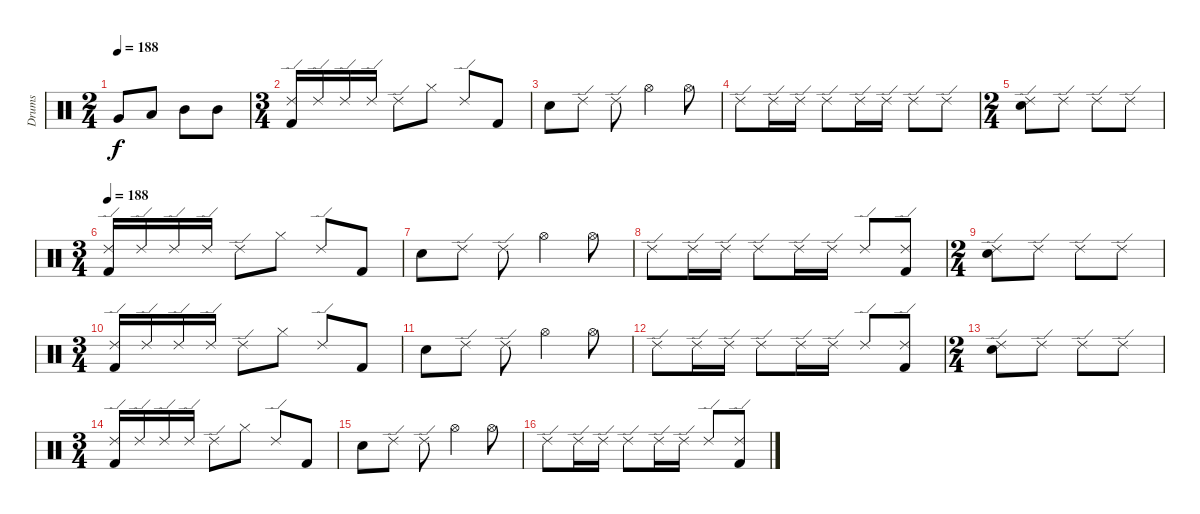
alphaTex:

\track ("Drums" "Drums") {instrument percussion}
\staff {score}
\articulation defaults
\ts (2 4)
\tempo 188
\clef neutral
\ks c "Very Low Tom (hit)".8{dy f} "Low Tom (hit)".8 "Mid Tom (hit)".8 "Mid Tom (hit)".8
|
\ts (3 4)
("Ride (edge) 2" "Kick (hit) 2").16 "Ride (edge) 2".16 "Ride (edge) 2".16 "Ride (edge) 2".16 "Ride (edge) 2".8 "Hi-Hat (closed)".8 "Ride (edge) 2".8 "Kick (hit) 2".8 |
"Electric Snare (hit)".8 "Ride (edge) 2".8 "Ride (edge) 2".8 "Hi-Hat (open)".4 "Hi-Hat (open)".8 |
"Ride (edge) 2".8 "Ride (edge) 2".16 "Ride (edge) 2".16 "Ride (edge) 2".8 "Ride (edge) 2".16 "Ride (edge) 2".16 "Ride (edge) 2".8 "Ride (edge) 2".8 |
\ts (2 4)
("Electric Snare (hit)" "Ride (edge) 2").8 "Ride (edge) 2".8 "Ride (edge) 2".8 "Ride (edge) 2".8 |
\ts (3 4)
\tempo 188
("Ride (edge) 2" "Kick (hit) 2").16 "Ride (edge) 2".16 "Ride (edge) 2".16 "Ride (edge) 2".16 "Ride (edge) 2".8 "Hi-Hat (closed)".8 "Ride (edge) 2".8 "Kick (hit) 2".8 |
"Electric Snare (hit)".8 "Ride (edge) 2".8 "Ride (edge) 2".8 "Hi-Hat (open)".4 "Hi-Hat (open)".8 |
"Ride (edge) 2".8 "Ride (edge) 2".16 "Ride (edge) 2".16 "Ride (edge) 2".8 "Ride (edge) 2".16 "Ride (edge) 2".16 "Ride (edge) 2".8 ("Ride (edge) 2" "Kick (hit) 2").8 |
\ts (2 4)
("Electric Snare (hit)" "Ride (edge) 2").8 "Ride (edge) 2".8 "Ride (edge) 2".8 "Ride (edge) 2".8 |
\ts (3 4)
("Ride (edge) 2" "Kick (hit) 2").16 "Ride (edge) 2".16 "Ride (edge) 2".16 "Ride (edge) 2".16 "Ride (edge) 2".8 "Hi-Hat (closed)".8 "Ride (edge) 2".8 "Kick (hit) 2".8 |
"Electric Snare (hit)".8 "Ride (edge) 2".8 "Ride (edge) 2".8 "Hi-Hat (open)".4 "Hi-Hat (open)".8 |
"Ride (edge) 2".8 "Ride (edge) 2".16 "Ride (edge) 2".16 "Ride (edge) 2".8 "Ride (edge) 2".16 "Ride (edge) 2".16 "Ride (edge) 2".8 ("Ride (edge) 2" "Kick (hit) 2").8 |
\ts (2 4)
("Electric Snare (hit)" "Ride (edge) 2").8 "Ride (edge) 2".8 "Ride (edge) 2".8 "Ride (edge) 2".8 |
\ts (3 4)
("Ride (edge) 2" "Kick (hit) 2").16 "Ride (edge) 2".16 "Ride (edge) 2".16 "Ride (edge) 2".16 "Ride (edge) 2".8 "Hi-Hat (closed)".8 "Ride (edge) 2".8 "Kick (hit) 2".8 |
"Electric Snare (hit)".8 "Ride (edge) 2".8 "Ride (edge) 2".8 "Hi-Hat (open)".4 "Hi-Hat (open)".8 |
"Ride (edge) 2".8 "Ride (edge) 2".16 "Ride (edge) 2".16 "Ride (edge) 2".8 "Ride (edge) 2".16 "Ride (edge) 2".16 "Ride (edge) 2".8 ("Ride (edge) 2" "Kick (hit) 2").8
